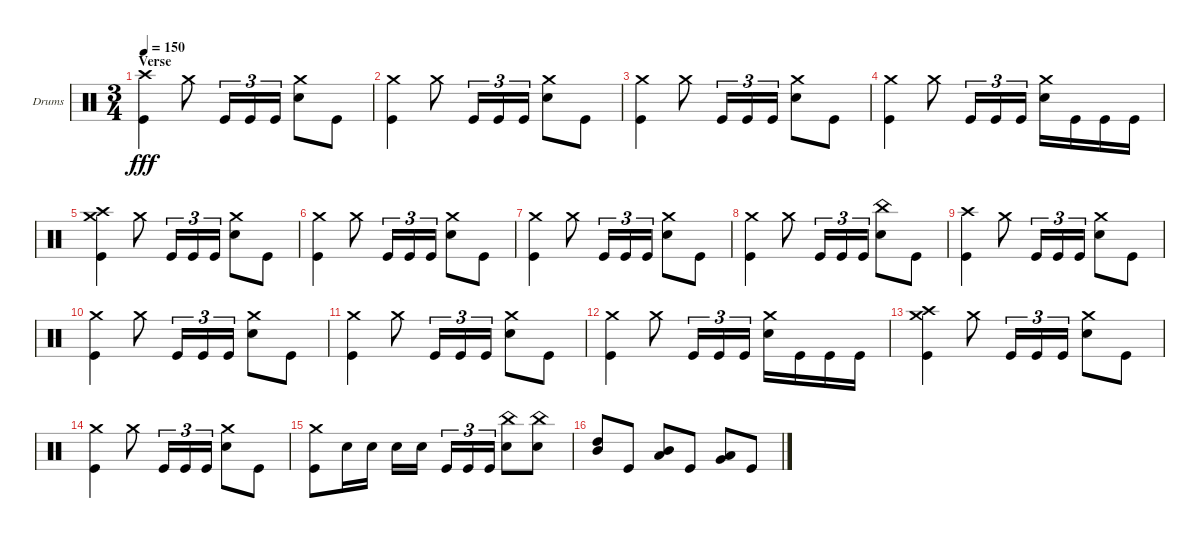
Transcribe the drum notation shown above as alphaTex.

\defaultSystemsLayout 4
\bracketExtendMode groupsimilarinstruments
\firstSystemTrackNameOrientation horizontal
\otherSystemsTrackNameOrientation horizontal
\track ("Chris Adler" "Drums") {instrument percussion}
\staff {score}
\articulation defaults
\ts (3 4)
\section ("" "Verse")
\tempo 150
\clef neutral
\ks c
("Kick (hit)" "Crash high (hit)").4{dy fff} "Crash medium (hit)".8 "Kick (hit)".16{tu (3 2)} "Kick (hit)".16{tu (3 2)} "Kick (hit)".16{tu (3 2)} ("Snare (hit) 2" "Crash medium (hit)").8 "Kick (hit)".8 |
("Kick (hit)" "Crash medium (hit)").4 "Crash medium (hit)".8 "Kick (hit)".16{tu (3 2)} "Kick (hit)".16{tu (3 2)} "Kick (hit)".16{tu (3 2)} ("Snare (hit) 2" "Crash medium (hit)").8 "Kick (hit)".8 |
("Kick (hit)" "Crash medium (hit)").4 "Crash medium (hit)".8 "Kick (hit)".16{tu (3 2)} "Kick (hit)".16{tu (3 2)} "Kick (hit)".16{tu (3 2)} ("Snare (hit) 2" "Crash medium (hit)").8 "Kick (hit)".8 |
("Kick (hit)" "Crash medium (hit)").4 "Crash medium (hit)".8 "Kick (hit)".16{tu (3 2)} "Kick (hit)".16{tu (3 2)} "Kick (hit)".16{tu (3 2)} ("Snare (hit) 2" "Crash medium (hit)").16 "Kick (hit)".16 "Kick (hit)".16 "Kick (hit)".16 |
("Kick (hit)" "Crash medium (hit)" "Crash high (hit)").4 "Crash medium (hit)".8 "Kick (hit)".16{tu (3 2)} "Kick (hit)".16{tu (3 2)} "Kick (hit)".16{tu (3 2)} ("Snare (hit) 2" "Crash medium (hit)").8 "Kick (hit)".8 |
("Kick (hit)" "Crash medium (hit)").4 "Crash medium (hit)".8 "Kick (hit)".16{tu (3 2)} "Kick (hit)".16{tu (3 2)} "Kick (hit)".16{tu (3 2)} ("Snare (hit) 2" "Crash medium (hit)").8 "Kick (hit)".8 |
("Kick (hit)" "Crash medium (hit)").4 "Crash medium (hit)".8 "Kick (hit)".16{tu (3 2)} "Kick (hit)".16{tu (3 2)} "Kick (hit)".16{tu (3 2)} ("Snare (hit) 2" "Crash medium (hit)").8 "Kick (hit)".8 |
("Kick (hit)" "Crash medium (hit)").4 "Crash medium (hit)".8 "Kick (hit)".16{tu (3 2)} "Kick (hit)".16{tu (3 2)} "Kick (hit)".16{tu (3 2)} ("Snare (hit) 2" "China (hit)").8 "Kick (hit)".8 |
("Kick (hit)" "Crash high (hit)").4 "Crash medium (hit)".8 "Kick (hit)".16{tu (3 2)} "Kick (hit)".16{tu (3 2)} "Kick (hit)".16{tu (3 2)} ("Snare (hit) 2" "Crash medium (hit)").8 "Kick (hit)".8 |
("Kick (hit)" "Crash medium (hit)").4 "Crash medium (hit)".8 "Kick (hit)".16{tu (3 2)} "Kick (hit)".16{tu (3 2)} "Kick (hit)".16{tu (3 2)} ("Snare (hit) 2" "Crash medium (hit)").8 "Kick (hit)".8 |
("Kick (hit)" "Crash medium (hit)").4 "Crash medium (hit)".8 "Kick (hit)".16{tu (3 2)} "Kick (hit)".16{tu (3 2)} "Kick (hit)".16{tu (3 2)} ("Snare (hit) 2" "Crash medium (hit)").8 "Kick (hit)".8 |
("Kick (hit)" "Crash medium (hit)").4 "Crash medium (hit)".8 "Kick (hit)".16{tu (3 2)} "Kick (hit)".16{tu (3 2)} "Kick (hit)".16{tu (3 2)} ("Snare (hit) 2" "Crash medium (hit)").16 "Kick (hit)".16 "Kick (hit)".16 "Kick (hit)".16 |
("Kick (hit)" "Crash medium (hit)" "Crash high (hit)").4 "Crash medium (hit)".8 "Kick (hit)".16{tu (3 2)} "Kick (hit)".16{tu (3 2)} "Kick (hit)".16{tu (3 2)} ("Snare (hit) 2" "Crash medium (hit)").8 "Kick (hit)".8 |
("Kick (hit)" "Crash medium (hit)").4 "Crash medium (hit)".8 "Kick (hit)".16{tu (3 2)} "Kick (hit)".16{tu (3 2)} "Kick (hit)".16{tu (3 2)} ("Snare (hit) 2" "Crash medium (hit)").8 "Kick (hit)".8 |
("Kick (hit)" "Crash medium (hit)").8 "Snare (hit) 2".16 "Snare (hit) 2".16 "Snare (hit) 2".16 "Snare (hit) 2".16 "Kick (hit)".16{tu (3 2)} "Kick (hit)".16{tu (3 2)} "Kick (hit)".16{tu (3 2)} ("Snare (hit) 2" "China (hit)").8 ("Snare (hit) 2" "China (hit)").8 |
("High Tom (hit)" "Mid Tom (hit)").8 "Kick (hit)".8 ("Mid Tom (hit)" "Low Tom (hit)").8 "Kick (hit)".8 ("Low Tom (hit)" "Very Low Tom (hit)").8 "Kick (hit)".8
